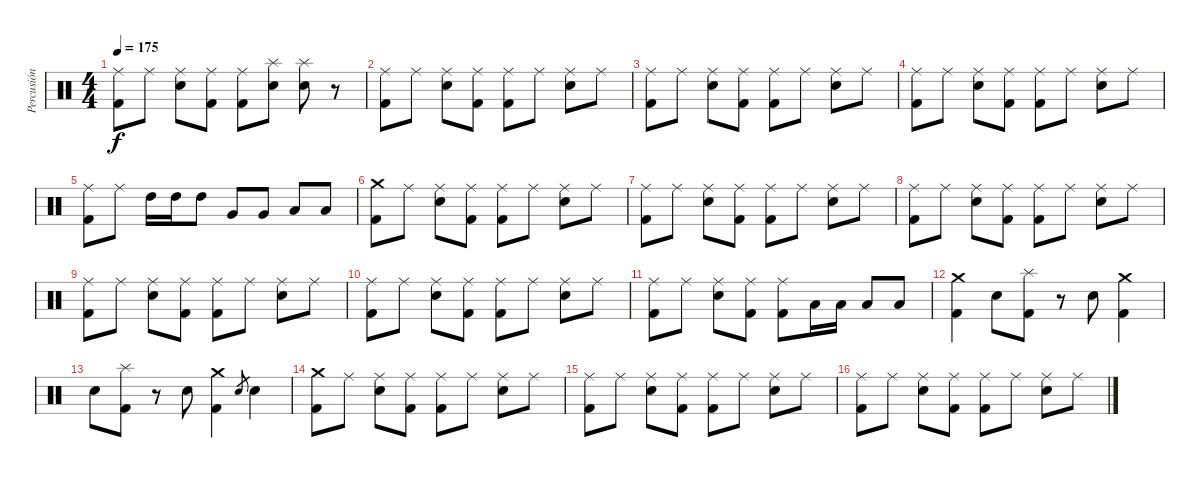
\track ("Percusión" "Percusión") {instrument percussion}
\staff {score}
\articulation defaults
\ts (4 4)
\tempo 175
\clef neutral
\ks c
("Ride (middle)" "Kick (hit) 2").8{dy f} "Ride (middle)".8 ("Ride (middle)" "Electric Snare (hit)").8 ("Ride (middle)" "Kick (hit) 2").8 ("Kick (hit) 2" "Ride (middle)").8 ("Electric Snare (hit)" "Splash (hit)").8 ("Splash (hit)" "Electric Snare (hit)").8 r.8 |
("Ride (middle)" "Kick (hit) 2").8 "Ride (middle)".8 ("Ride (middle)" "Electric Snare (hit)").8 ("Ride (middle)" "Kick (hit) 2").8 ("Kick (hit) 2" "Ride (middle)").8 "Ride (middle)".8 ("Electric Snare (hit)" "Ride (middle)").8 "Ride (middle)".8 |
("Ride (middle)" "Kick (hit) 2").8 "Ride (middle)".8 ("Ride (middle)" "Electric Snare (hit)").8 ("Ride (middle)" "Kick (hit) 2").8 ("Kick (hit) 2" "Ride (middle)").8 "Ride (middle)".8 ("Electric Snare (hit)" "Ride (middle)").8 "Ride (middle)".8 |
("Ride (middle)" "Kick (hit) 2").8 "Ride (middle)".8 ("Ride (middle)" "Electric Snare (hit)").8 ("Ride (middle)" "Kick (hit) 2").8 ("Kick (hit) 2" "Ride (middle)").8 "Ride (middle)".8 ("Electric Snare (hit)" "Ride (middle)").8 "Ride (middle)".8 |
("Ride (middle)" "Kick (hit) 2").8 "Ride (middle)".8 "High Tom (hit)".16 "High Tom (hit)".16 "High Tom (hit)".8 "Very Low Tom (hit)".8 "Very Low Tom (hit)".8 "Low Floor Tom (hit)".8 "Low Floor Tom (hit)".8 |
("Crash medium (hit)" "Kick (hit) 2").8 "Ride (middle)".8 ("Ride (middle)" "Electric Snare (hit)").8 ("Ride (middle)" "Kick (hit) 2").8 ("Kick (hit) 2" "Ride (middle)").8 "Ride (middle)".8 ("Electric Snare (hit)" "Ride (middle)").8 "Ride (middle)".8 |
("Ride (middle)" "Kick (hit) 2").8 "Ride (middle)".8 ("Ride (middle)" "Electric Snare (hit)").8 ("Ride (middle)" "Kick (hit) 2").8 ("Kick (hit) 2" "Ride (middle)").8 "Ride (middle)".8 ("Electric Snare (hit)" "Ride (middle)").8 "Ride (middle)".8 |
("Ride (middle)" "Kick (hit) 2").8 "Ride (middle)".8 ("Ride (middle)" "Electric Snare (hit)").8 ("Ride (middle)" "Kick (hit) 2").8 ("Kick (hit) 2" "Ride (middle)").8 "Ride (middle)".8 ("Electric Snare (hit)" "Ride (middle)").8 "Ride (middle)".8 |
("Ride (middle)" "Kick (hit) 2").8 "Ride (middle)".8 ("Ride (middle)" "Electric Snare (hit)").8 ("Ride (middle)" "Kick (hit) 2").8 ("Kick (hit) 2" "Ride (middle)").8 "Ride (middle)".8 ("Electric Snare (hit)" "Ride (middle)").8 "Ride (middle)".8 |
("Ride (middle)" "Kick (hit) 2").8 "Ride (middle)".8 ("Ride (middle)" "Electric Snare (hit)").8 ("Ride (middle)" "Kick (hit) 2").8 ("Kick (hit) 2" "Ride (middle)").8 "Ride (middle)".8 ("Electric Snare (hit)" "Ride (middle)").8 "Ride (middle)".8 |
("Ride (middle)" "Kick (hit) 2").8 "Ride (middle)".8 ("Ride (middle)" "Electric Snare (hit)").8 ("Ride (middle)" "Kick (hit) 2").8 ("Kick (hit) 2" "Ride (middle)").8 "Low Tom (hit)".16 "Low Floor Tom (hit)".16 "Low Floor Tom (hit)".8 "Low Floor Tom (hit)".8 |
("Crash medium (hit)" "Kick (hit) 2").4 "Electric Snare (hit)".8 ("Splash (hit)" "Kick (hit) 2").8 r.8 "Electric Snare (hit)".8 ("Crash medium (hit)" "Kick (hit) 2").4 |
"Electric Snare (hit)".8 ("Splash (hit)" "Kick (hit) 2").8 r.8 "Electric Snare (hit)".8 ("Crash medium (hit)" "Kick (hit) 2").4 "Electric Snare (hit)".8{gr} "Electric Snare (hit)".4 |
("Crash medium (hit)" "Kick (hit) 2").8 "Ride (middle)".8 ("Ride (middle)" "Electric Snare (hit)").8 ("Ride (middle)" "Kick (hit) 2").8 ("Kick (hit) 2" "Ride (middle)").8 "Ride (middle)".8 ("Electric Snare (hit)" "Ride (middle)").8 "Ride (middle)".8 |
("Ride (middle)" "Kick (hit) 2").8 "Ride (middle)".8 ("Ride (middle)" "Electric Snare (hit)").8 ("Ride (middle)" "Kick (hit) 2").8 ("Kick (hit) 2" "Ride (middle)").8 "Ride (middle)".8 ("Electric Snare (hit)" "Ride (middle)").8 "Ride (middle)".8 |
("Ride (middle)" "Kick (hit) 2").8 "Ride (middle)".8 ("Ride (middle)" "Electric Snare (hit)").8 ("Ride (middle)" "Kick (hit) 2").8 ("Kick (hit) 2" "Ride (middle)").8 "Ride (middle)".8 ("Electric Snare (hit)" "Ride (middle)").8 "Ride (middle)".8
